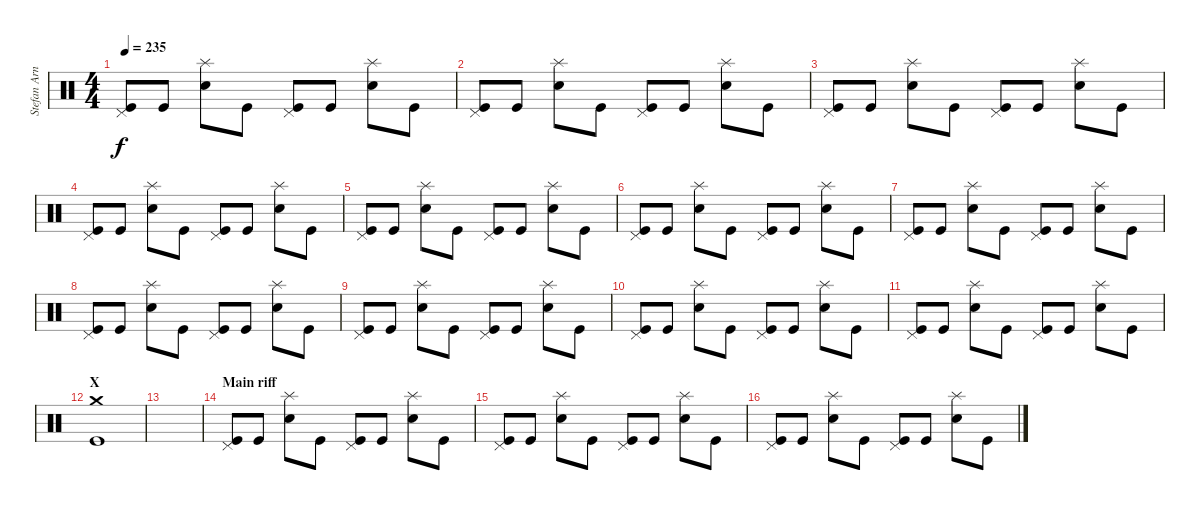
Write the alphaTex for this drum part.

\track ("Stefan Arnold" "Stefan Arn") {instrument percussion}
\staff {score}
\articulation defaults
\ts (4 4)
\tempo 235
\clef neutral
\ks c
("Kick (hit)" "Pedal Hi-Hat (hit)").8{dy f} "Kick (hit)".8 ("Electric Snare (hit)" "Splash (hit)").8 "Kick (hit)".8 ("Kick (hit)" "Pedal Hi-Hat (hit)").8 "Kick (hit)".8 ("Electric Snare (hit)" "Splash (hit)").8 "Kick (hit)".8 |
("Kick (hit)" "Pedal Hi-Hat (hit)").8 "Kick (hit)".8 ("Electric Snare (hit)" "Splash (hit)").8 "Kick (hit)".8 ("Kick (hit)" "Pedal Hi-Hat (hit)").8 "Kick (hit)".8 ("Electric Snare (hit)" "Splash (hit)").8 "Kick (hit)".8 |
("Kick (hit)" "Pedal Hi-Hat (hit)").8 "Kick (hit)".8 ("Electric Snare (hit)" "Splash (hit)").8 "Kick (hit)".8 ("Kick (hit)" "Pedal Hi-Hat (hit)").8 "Kick (hit)".8 ("Electric Snare (hit)" "Splash (hit)").8 "Kick (hit)".8 |
("Kick (hit)" "Pedal Hi-Hat (hit)").8 "Kick (hit)".8 ("Electric Snare (hit)" "Splash (hit)").8 "Kick (hit)".8 ("Kick (hit)" "Pedal Hi-Hat (hit)").8 "Kick (hit)".8 ("Electric Snare (hit)" "Splash (hit)").8 "Kick (hit)".8 |
("Kick (hit)" "Pedal Hi-Hat (hit)").8 "Kick (hit)".8 ("Electric Snare (hit)" "Splash (hit)").8 "Kick (hit)".8 ("Kick (hit)" "Pedal Hi-Hat (hit)").8 "Kick (hit)".8 ("Electric Snare (hit)" "Splash (hit)").8 "Kick (hit)".8 |
("Kick (hit)" "Pedal Hi-Hat (hit)").8 "Kick (hit)".8 ("Electric Snare (hit)" "Splash (hit)").8 "Kick (hit)".8 ("Kick (hit)" "Pedal Hi-Hat (hit)").8 "Kick (hit)".8 ("Electric Snare (hit)" "Splash (hit)").8 "Kick (hit)".8 |
("Kick (hit)" "Pedal Hi-Hat (hit)").8 "Kick (hit)".8 ("Electric Snare (hit)" "Splash (hit)").8 "Kick (hit)".8 ("Kick (hit)" "Pedal Hi-Hat (hit)").8 "Kick (hit)".8 ("Electric Snare (hit)" "Splash (hit)").8 "Kick (hit)".8 |
("Kick (hit)" "Pedal Hi-Hat (hit)").8 "Kick (hit)".8 ("Electric Snare (hit)" "Splash (hit)").8 "Kick (hit)".8 ("Kick (hit)" "Pedal Hi-Hat (hit)").8 "Kick (hit)".8 ("Electric Snare (hit)" "Splash (hit)").8 "Kick (hit)".8 |
("Kick (hit)" "Pedal Hi-Hat (hit)").8 "Kick (hit)".8 ("Electric Snare (hit)" "Splash (hit)").8 "Kick (hit)".8 ("Kick (hit)" "Pedal Hi-Hat (hit)").8 "Kick (hit)".8 ("Electric Snare (hit)" "Splash (hit)").8 "Kick (hit)".8 |
("Kick (hit)" "Pedal Hi-Hat (hit)").8 "Kick (hit)".8 ("Electric Snare (hit)" "Splash (hit)").8 "Kick (hit)".8 ("Kick (hit)" "Pedal Hi-Hat (hit)").8 "Kick (hit)".8 ("Electric Snare (hit)" "Splash (hit)").8 "Kick (hit)".8 |
("Kick (hit)" "Pedal Hi-Hat (hit)").8 "Kick (hit)".8 ("Electric Snare (hit)" "Splash (hit)").8 "Kick (hit)".8 ("Kick (hit)" "Pedal Hi-Hat (hit)").8 "Kick (hit)".8 ("Electric Snare (hit)" "Splash (hit)").8 "Kick (hit)".8 |
\section ("" "X")
("Kick (hit)" "Crash medium (hit)").1 |
|
\section ("" "Main riff")
("Kick (hit)" "Pedal Hi-Hat (hit)").8 "Kick (hit)".8 ("Electric Snare (hit)" "Splash (hit)").8 "Kick (hit)".8 ("Kick (hit)" "Pedal Hi-Hat (hit)").8 "Kick (hit)".8 ("Electric Snare (hit)" "Splash (hit)").8 "Kick (hit)".8 |
("Kick (hit)" "Pedal Hi-Hat (hit)").8 "Kick (hit)".8 ("Electric Snare (hit)" "Splash (hit)").8 "Kick (hit)".8 ("Kick (hit)" "Pedal Hi-Hat (hit)").8 "Kick (hit)".8 ("Electric Snare (hit)" "Splash (hit)").8 "Kick (hit)".8 |
("Kick (hit)" "Pedal Hi-Hat (hit)").8 "Kick (hit)".8 ("Electric Snare (hit)" "Splash (hit)").8 "Kick (hit)".8 ("Kick (hit)" "Pedal Hi-Hat (hit)").8 "Kick (hit)".8 ("Electric Snare (hit)" "Splash (hit)").8 "Kick (hit)".8
